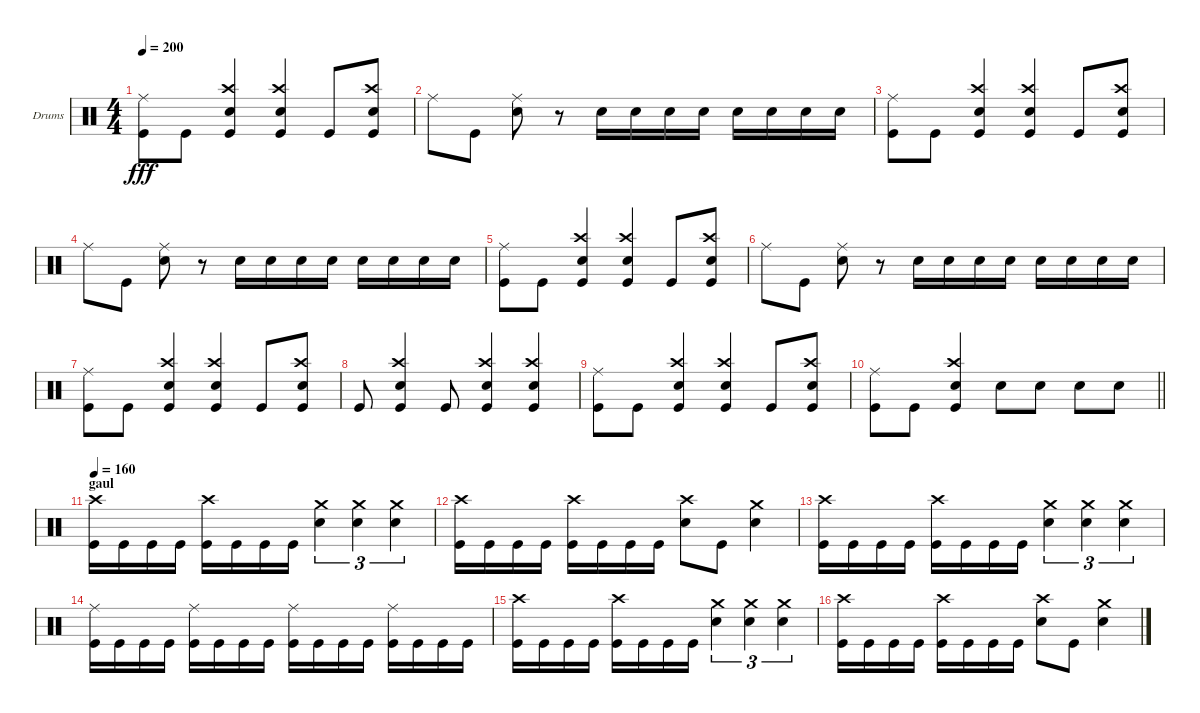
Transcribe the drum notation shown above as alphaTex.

\bracketExtendMode groupsimilarinstruments
\firstSystemTrackNameOrientation horizontal
\otherSystemsTrackNameOrientation horizontal
\track ("Drumkit" "Drums") {instrument percussion}
\staff {score}
\articulation defaults
\ts (4 4)
\tempo 200
\clef neutral
\ks c
("Ride (middle)" "Kick (hit)").8{dy fff} "Kick (hit)".8 ("Crash high (hit)" "Snare (hit) 2" "Kick (hit)").4 ("Crash high (hit)" "Snare (hit) 2" "Kick (hit)").4 "Kick (hit)".8 ("Crash high (hit)" "Snare (hit) 2" "Kick (hit)").8 |
"Ride (middle)".8 "Kick (hit)".8 ("Ride (middle)" "Snare (hit) 2").8 r.8 "Snare (hit) 2".16 "Snare (hit) 2".16 "Snare (hit) 2".16 "Snare (hit) 2".16 "Snare (hit) 2".16 "Snare (hit) 2".16 "Snare (hit) 2".16 "Snare (hit) 2".16 |
("Ride (middle)" "Kick (hit)").8 "Kick (hit)".8 ("Crash high (hit)" "Snare (hit) 2" "Kick (hit)").4 ("Crash high (hit)" "Snare (hit) 2" "Kick (hit)").4 "Kick (hit)".8 ("Crash high (hit)" "Snare (hit) 2" "Kick (hit)").8 |
"Ride (middle)".8 "Kick (hit)".8 ("Ride (middle)" "Snare (hit) 2").8 r.8 "Snare (hit) 2".16 "Snare (hit) 2".16 "Snare (hit) 2".16 "Snare (hit) 2".16 "Snare (hit) 2".16 "Snare (hit) 2".16 "Snare (hit) 2".16 "Snare (hit) 2".16 |
("Ride (middle)" "Kick (hit)").8 "Kick (hit)".8 ("Crash high (hit)" "Snare (hit) 2" "Kick (hit)").4 ("Crash high (hit)" "Snare (hit) 2" "Kick (hit)").4 "Kick (hit)".8 ("Crash high (hit)" "Snare (hit) 2" "Kick (hit)").8 |
"Ride (middle)".8 "Kick (hit)".8 ("Ride (middle)" "Snare (hit) 2").8 r.8 "Snare (hit) 2".16 "Snare (hit) 2".16 "Snare (hit) 2".16 "Snare (hit) 2".16 "Snare (hit) 2".16 "Snare (hit) 2".16 "Snare (hit) 2".16 "Snare (hit) 2".16 |
("Ride (middle)" "Kick (hit)").8 "Kick (hit)".8 ("Crash high (hit)" "Snare (hit) 2" "Kick (hit)").4 ("Crash high (hit)" "Snare (hit) 2" "Kick (hit)").4 "Kick (hit)".8 ("Crash high (hit)" "Snare (hit) 2" "Kick (hit)").8 |
"Kick (hit)".8 ("Crash high (hit)" "Snare (hit) 2" "Kick (hit)").4 "Kick (hit)".8 ("Crash high (hit)" "Snare (hit) 2" "Kick (hit)").4 ("Crash high (hit)" "Snare (hit) 2" "Kick (hit)").4 |
("Ride (middle)" "Kick (hit)").8 "Kick (hit)".8 ("Crash high (hit)" "Snare (hit) 2" "Kick (hit)").4 ("Crash high (hit)" "Snare (hit) 2" "Kick (hit)").4 "Kick (hit)".8 ("Crash high (hit)" "Snare (hit) 2" "Kick (hit)").8 |
\barLineRight lightlight
("Ride (middle)" "Kick (hit)").8 "Kick (hit)".8 ("Crash high (hit)" "Snare (hit) 2" "Kick (hit)").4 "Snare (hit) 2".8 "Snare (hit) 2".8 "Snare (hit) 2".8 "Snare (hit) 2".8 |
\section ("" "gaul")
\tempo 160
("Crash high (hit)" "Kick (hit)").16 "Kick (hit)".16 "Kick (hit)".16 "Kick (hit)".16 ("Crash high (hit)" "Kick (hit)").16 "Kick (hit)".16 "Kick (hit)".16 "Kick (hit)".16 ("Crash medium (hit)" "Snare (hit) 2").4{tu (3 2)} ("Crash medium (hit)" "Snare (hit) 2").4{tu (3 2)} ("Crash medium (hit)" "Snare (hit) 2").4{tu (3 2)} |
("Crash high (hit)" "Kick (hit)").16 "Kick (hit)".16 "Kick (hit)".16 "Kick (hit)".16 ("Crash high (hit)" "Kick (hit)").16 "Kick (hit)".16 "Kick (hit)".16 "Kick (hit)".16 ("Crash high (hit)" "Snare (hit) 2").8 "Kick (hit)".8 ("Crash medium (hit)" "Snare (hit) 2").4 |
("Crash high (hit)" "Kick (hit)").16 "Kick (hit)".16 "Kick (hit)".16 "Kick (hit)".16 ("Crash high (hit)" "Kick (hit)").16 "Kick (hit)".16 "Kick (hit)".16 "Kick (hit)".16 ("Crash medium (hit)" "Snare (hit) 2").4{tu (3 2)} ("Crash medium (hit)" "Snare (hit) 2").4{tu (3 2)} ("Crash medium (hit)" "Snare (hit) 2").4{tu (3 2)} |
("Ride (middle)" "Kick (hit)").16 "Kick (hit)".16 "Kick (hit)".16 "Kick (hit)".16 ("Ride (middle)" "Kick (hit)").16 "Kick (hit)".16 "Kick (hit)".16 "Kick (hit)".16 ("Ride (middle)" "Kick (hit)").16 "Kick (hit)".16 "Kick (hit)".16 "Kick (hit)".16 ("Ride (middle)" "Kick (hit)").16 "Kick (hit)".16 "Kick (hit)".16 "Kick (hit)".16 |
("Crash high (hit)" "Kick (hit)").16 "Kick (hit)".16 "Kick (hit)".16 "Kick (hit)".16 ("Crash high (hit)" "Kick (hit)").16 "Kick (hit)".16 "Kick (hit)".16 "Kick (hit)".16 ("Crash medium (hit)" "Snare (hit) 2").4{tu (3 2)} ("Crash medium (hit)" "Snare (hit) 2").4{tu (3 2)} ("Crash medium (hit)" "Snare (hit) 2").4{tu (3 2)} |
("Crash high (hit)" "Kick (hit)").16 "Kick (hit)".16 "Kick (hit)".16 "Kick (hit)".16 ("Crash high (hit)" "Kick (hit)").16 "Kick (hit)".16 "Kick (hit)".16 "Kick (hit)".16 ("Crash high (hit)" "Snare (hit) 2").8 "Kick (hit)".8 ("Crash medium (hit)" "Snare (hit) 2").4
